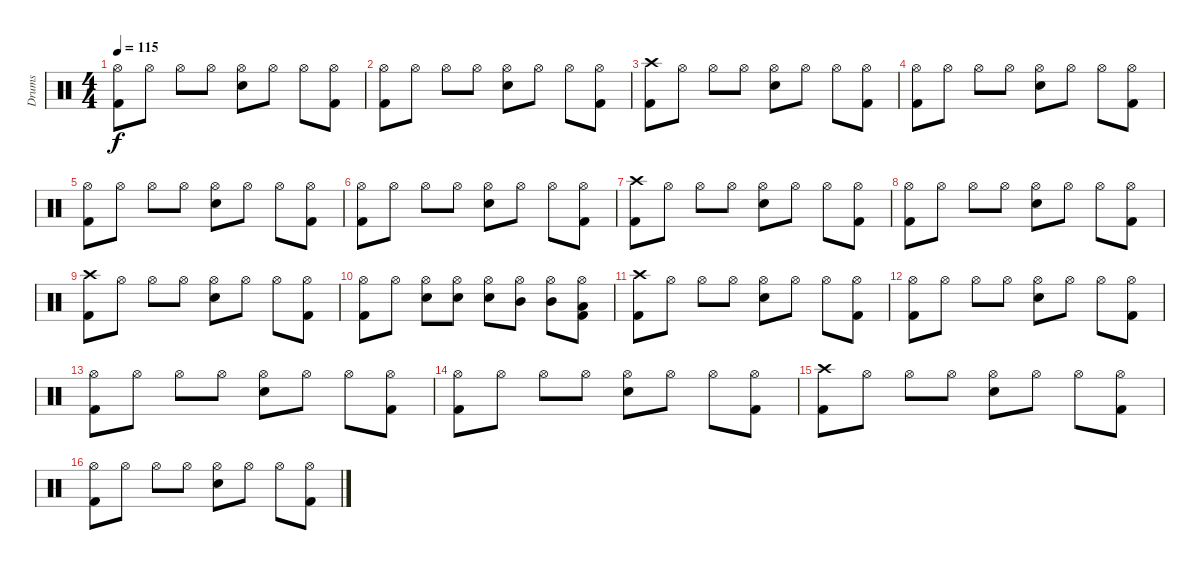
\track ("Drums" "Drums") {instrument percussion}
\staff
\articulation defaults
\ts (4 4)
\tempo 115
\clef neutral
\ks c
("Hi-Hat (open)" "Kick (hit) 2").8{dy f} "Hi-Hat (open)".8 "Hi-Hat (open)".8 "Hi-Hat (open)".8 ("Snare (hit) 2" "Hi-Hat (open)").8 "Hi-Hat (open)".8 "Hi-Hat (open)".8 ("Hi-Hat (open)" "Kick (hit) 2").8 |
("Hi-Hat (open)" "Kick (hit) 2").8 "Hi-Hat (open)".8 "Hi-Hat (open)".8 "Hi-Hat (open)".8 ("Snare (hit) 2" "Hi-Hat (open)").8 "Hi-Hat (open)".8 "Hi-Hat (open)".8 ("Hi-Hat (open)" "Kick (hit) 2").8 |
("Crash high (hit)" "Kick (hit) 2").8 "Hi-Hat (open)".8 "Hi-Hat (open)".8 "Hi-Hat (open)".8 ("Snare (hit) 2" "Hi-Hat (open)").8 "Hi-Hat (open)".8 "Hi-Hat (open)".8 ("Hi-Hat (open)" "Kick (hit) 2").8 |
("Hi-Hat (open)" "Kick (hit) 2").8 "Hi-Hat (open)".8 "Hi-Hat (open)".8 "Hi-Hat (open)".8 ("Snare (hit) 2" "Hi-Hat (open)").8 "Hi-Hat (open)".8 "Hi-Hat (open)".8 ("Hi-Hat (open)" "Kick (hit) 2").8 |
("Hi-Hat (open)" "Kick (hit) 2").8 "Hi-Hat (open)".8 "Hi-Hat (open)".8 "Hi-Hat (open)".8 ("Snare (hit) 2" "Hi-Hat (open)").8 "Hi-Hat (open)".8 "Hi-Hat (open)".8 ("Hi-Hat (open)" "Kick (hit) 2").8 |
("Hi-Hat (open)" "Kick (hit) 2").8 "Hi-Hat (open)".8 "Hi-Hat (open)".8 "Hi-Hat (open)".8 ("Snare (hit) 2" "Hi-Hat (open)").8 "Hi-Hat (open)".8 "Hi-Hat (open)".8 ("Hi-Hat (open)" "Kick (hit) 2").8 |
("Crash high (hit)" "Kick (hit) 2").8 "Hi-Hat (open)".8 "Hi-Hat (open)".8 "Hi-Hat (open)".8 ("Snare (hit) 2" "Hi-Hat (open)").8 "Hi-Hat (open)".8 "Hi-Hat (open)".8 ("Hi-Hat (open)" "Kick (hit) 2").8 |
("Hi-Hat (open)" "Kick (hit) 2").8 "Hi-Hat (open)".8 "Hi-Hat (open)".8 "Hi-Hat (open)".8 ("Snare (hit) 2" "Hi-Hat (open)").8 "Hi-Hat (open)".8 "Hi-Hat (open)".8 ("Hi-Hat (open)" "Kick (hit) 2").8 |
("Crash high (hit)" "Kick (hit) 2").8 "Hi-Hat (open)".8 "Hi-Hat (open)".8 "Hi-Hat (open)".8 ("Snare (hit) 2" "Hi-Hat (open)").8 "Hi-Hat (open)".8 "Hi-Hat (open)".8 ("Hi-Hat (open)" "Kick (hit) 2").8 |
("Hi-Hat (open)" "Kick (hit) 2").8 "Hi-Hat (open)".8 ("Snare (hit) 2" "Hi-Hat (open)").8 ("Snare (hit) 2" "Hi-Hat (open)").8 ("Snare (hit) 2" "Hi-Hat (open)").8 ("Mid Tom (hit)" "Hi-Hat (open)").8 ("Mid Tom (hit)" "Hi-Hat (open)").8 ("Low Tom (hit)" "Hi-Hat (open)" "Kick (hit) 2").8 |
("Crash high (hit)" "Kick (hit) 2").8 "Hi-Hat (open)".8 "Hi-Hat (open)".8 "Hi-Hat (open)".8 ("Snare (hit) 2" "Hi-Hat (open)").8 "Hi-Hat (open)".8 "Hi-Hat (open)".8 ("Hi-Hat (open)" "Kick (hit) 2").8 |
("Hi-Hat (open)" "Kick (hit) 2").8 "Hi-Hat (open)".8 "Hi-Hat (open)".8 "Hi-Hat (open)".8 ("Snare (hit) 2" "Hi-Hat (open)").8 "Hi-Hat (open)".8 "Hi-Hat (open)".8 ("Hi-Hat (open)" "Kick (hit) 2").8 |
("Hi-Hat (open)" "Kick (hit) 2").8 "Hi-Hat (open)".8 "Hi-Hat (open)".8 "Hi-Hat (open)".8 ("Snare (hit) 2" "Hi-Hat (open)").8 "Hi-Hat (open)".8 "Hi-Hat (open)".8 ("Hi-Hat (open)" "Kick (hit) 2").8 |
("Hi-Hat (open)" "Kick (hit) 2").8 "Hi-Hat (open)".8 "Hi-Hat (open)".8 "Hi-Hat (open)".8 ("Snare (hit) 2" "Hi-Hat (open)").8 "Hi-Hat (open)".8 "Hi-Hat (open)".8 ("Hi-Hat (open)" "Kick (hit) 2").8 |
("Crash high (hit)" "Kick (hit) 2").8 "Hi-Hat (open)".8 "Hi-Hat (open)".8 "Hi-Hat (open)".8 ("Snare (hit) 2" "Hi-Hat (open)").8 "Hi-Hat (open)".8 "Hi-Hat (open)".8 ("Hi-Hat (open)" "Kick (hit) 2").8 |
("Hi-Hat (open)" "Kick (hit) 2").8 "Hi-Hat (open)".8 "Hi-Hat (open)".8 "Hi-Hat (open)".8 ("Snare (hit) 2" "Hi-Hat (open)").8 "Hi-Hat (open)".8 "Hi-Hat (open)".8 ("Hi-Hat (open)" "Kick (hit) 2").8
